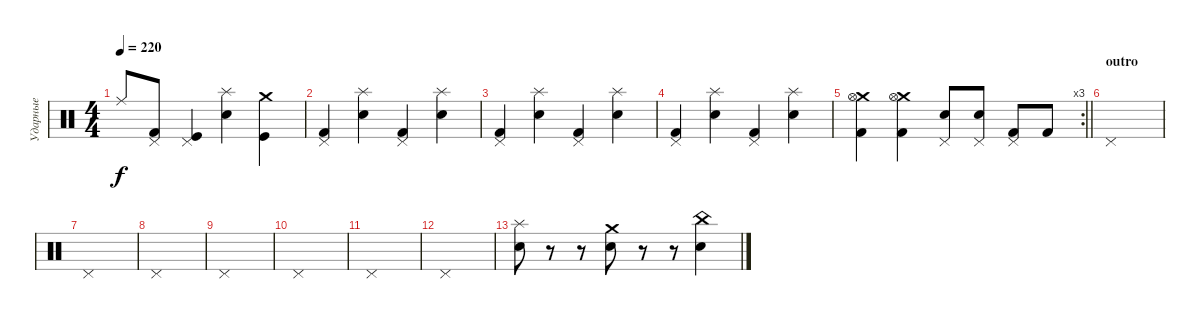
\track ("Ударные" "Ударные") {instrument percussion}
\staff
\articulation defaults
\ts (4 4)
\tempo 220
\clef neutral
\ks c "Ride (middle)".8{dy f}
("Pedal Hi-Hat (hit)" "Kick (hit) 2").8 ("Pedal Hi-Hat (hit)" "Kick (hit)").4 ("Splash (hit)" "Electric Snare (hit)").4 ("Crash medium (hit)" "Kick (hit)").4 |
("Pedal Hi-Hat (hit)" "Kick (hit) 2").4 ("Splash (hit)" "Electric Snare (hit)").4 ("Pedal Hi-Hat (hit)" "Kick (hit) 2").4 ("Splash (hit)" "Electric Snare (hit)").4 |
("Pedal Hi-Hat (hit)" "Kick (hit) 2").4 ("Splash (hit)" "Electric Snare (hit)").4 ("Pedal Hi-Hat (hit)" "Kick (hit) 2").4 ("Splash (hit)" "Electric Snare (hit)").4 |
("Pedal Hi-Hat (hit)" "Kick (hit) 2").4 ("Splash (hit)" "Electric Snare (hit)").4 ("Pedal Hi-Hat (hit)" "Kick (hit) 2").4 ("Splash (hit)" "Electric Snare (hit)").4 |
\rc 3
\barLineRight lightlight
("Crash medium (hit)" "Hi-Hat (open)" "Kick (hit) 2").4 ("Crash medium (hit)" "Hi-Hat (open)" "Kick (hit) 2").4 ("Pedal Hi-Hat (hit)" "Electric Snare (hit)").8 ("Pedal Hi-Hat (hit)" "Electric Snare (hit)").8 ("Pedal Hi-Hat (hit)" "Kick (hit) 2").8 "Kick (hit) 2".8 |
\section ("" "outro")
"Pedal Hi-Hat (hit)".1 |
"Pedal Hi-Hat (hit)".1 |
"Pedal Hi-Hat (hit)".1 |
"Pedal Hi-Hat (hit)".1 |
"Pedal Hi-Hat (hit)".1 |
"Pedal Hi-Hat (hit)".1 |
"Pedal Hi-Hat (hit)".1 |
("Splash (hit)" "Electric Snare (hit)").8 r.8 r.8 ("Crash medium (hit)" "Electric Snare (hit)").8 r.8 r.8 ("China (hit)" "Electric Snare (hit)").4
